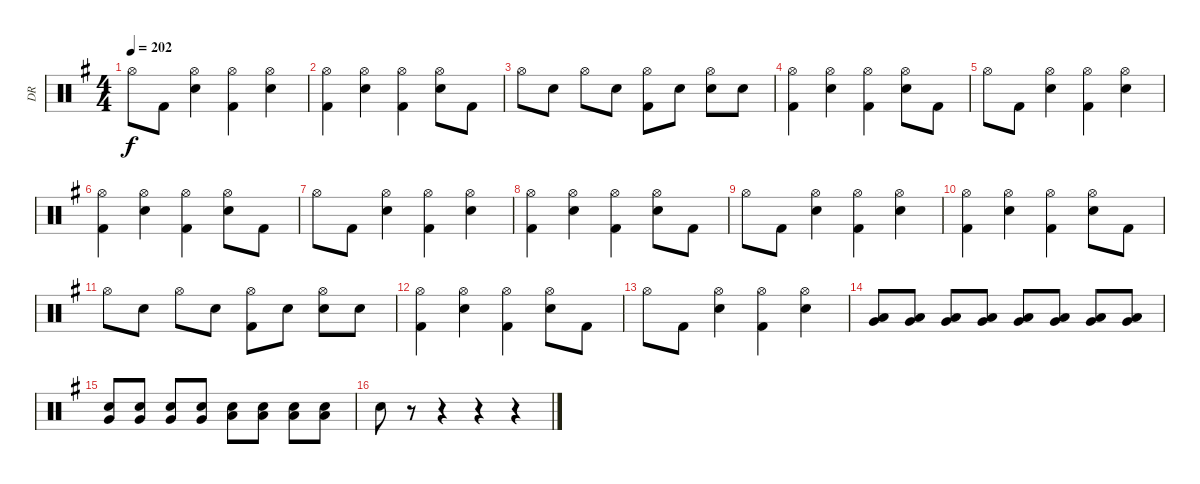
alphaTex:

\track ("DR" "DR") {instrument percussion}
\staff {score}
\articulation defaults
\ts (4 4)
\tempo 202
\clef neutral
\ks g "Hi-Hat (open)".8{dy f} "Kick (hit) 2".8
("Hi-Hat (open)" "Electric Snare (hit)").4 ("Hi-Hat (open)" "Kick (hit) 2").4 ("Hi-Hat (open)" "Electric Snare (hit)").4 |
("Hi-Hat (open)" "Kick (hit) 2").4 ("Hi-Hat (open)" "Electric Snare (hit)").4 ("Hi-Hat (open)" "Kick (hit) 2").4 ("Hi-Hat (open)" "Electric Snare (hit)").8 "Kick (hit) 2".8 |
"Hi-Hat (open)".8 "Electric Snare (hit)".8 "Hi-Hat (open)".8 "Electric Snare (hit)".8 ("Hi-Hat (open)" "Kick (hit) 2").8 "Electric Snare (hit)".8 ("Hi-Hat (open)" "Electric Snare (hit)").8 "Electric Snare (hit)".8 |
("Hi-Hat (open)" "Kick (hit) 2").4 ("Hi-Hat (open)" "Electric Snare (hit)").4 ("Hi-Hat (open)" "Kick (hit) 2").4 ("Hi-Hat (open)" "Electric Snare (hit)").8 "Kick (hit) 2".8 |
"Hi-Hat (open)".8 "Kick (hit) 2".8 ("Hi-Hat (open)" "Electric Snare (hit)").4 ("Hi-Hat (open)" "Kick (hit) 2").4 ("Hi-Hat (open)" "Electric Snare (hit)").4 |
("Hi-Hat (open)" "Kick (hit) 2").4 ("Hi-Hat (open)" "Electric Snare (hit)").4 ("Hi-Hat (open)" "Kick (hit) 2").4 ("Hi-Hat (open)" "Electric Snare (hit)").8 "Kick (hit) 2".8 |
"Hi-Hat (open)".8 "Kick (hit) 2".8 ("Hi-Hat (open)" "Electric Snare (hit)").4 ("Hi-Hat (open)" "Kick (hit) 2").4 ("Hi-Hat (open)" "Electric Snare (hit)").4 |
("Hi-Hat (open)" "Kick (hit) 2").4 ("Hi-Hat (open)" "Electric Snare (hit)").4 ("Hi-Hat (open)" "Kick (hit) 2").4 ("Hi-Hat (open)" "Electric Snare (hit)").8 "Kick (hit) 2".8 |
"Hi-Hat (open)".8 "Kick (hit) 2".8 ("Hi-Hat (open)" "Electric Snare (hit)").4 ("Hi-Hat (open)" "Kick (hit) 2").4 ("Hi-Hat (open)" "Electric Snare (hit)").4 |
("Hi-Hat (open)" "Kick (hit) 2").4 ("Hi-Hat (open)" "Electric Snare (hit)").4 ("Hi-Hat (open)" "Kick (hit) 2").4 ("Hi-Hat (open)" "Electric Snare (hit)").8 "Kick (hit) 2".8 |
"Hi-Hat (open)".8 "Electric Snare (hit)".8 "Hi-Hat (open)".8 "Electric Snare (hit)".8 ("Hi-Hat (open)" "Kick (hit) 2").8 "Electric Snare (hit)".8 ("Hi-Hat (open)" "Electric Snare (hit)").8 "Electric Snare (hit)".8 |
("Hi-Hat (open)" "Kick (hit) 2").4 ("Hi-Hat (open)" "Electric Snare (hit)").4 ("Hi-Hat (open)" "Kick (hit) 2").4 ("Hi-Hat (open)" "Electric Snare (hit)").8 "Kick (hit) 2".8 |
"Hi-Hat (open)".8 "Kick (hit) 2".8 ("Hi-Hat (open)" "Electric Snare (hit)").4 ("Hi-Hat (open)" "Kick (hit) 2").4 ("Hi-Hat (open)" "Electric Snare (hit)").4 |
("Very Low Tom (hit)" "Low Tom (hit)").8 ("Very Low Tom (hit)" "Low Tom (hit)").8 ("Very Low Tom (hit)" "Low Tom (hit)").8 ("Very Low Tom (hit)" "Low Tom (hit)").8 ("Very Low Tom (hit)" "Low Floor Tom (hit)").8 ("Very Low Tom (hit)" "Low Floor Tom (hit)").8 ("Very Low Tom (hit)" "Low Floor Tom (hit)").8 ("Very Low Tom (hit)" "Low Floor Tom (hit)").8 |
("Very Low Tom (hit)" "Electric Snare (hit)").8 ("Very Low Tom (hit)" "Electric Snare (hit)").8 ("Very Low Tom (hit)" "Electric Snare (hit)").8 ("Very Low Tom (hit)" "Electric Snare (hit)").8 ("Low Floor Tom (hit)" "Electric Snare (hit)").8 ("Low Floor Tom (hit)" "Electric Snare (hit)").8 ("Low Floor Tom (hit)" "Electric Snare (hit)").8 ("Low Floor Tom (hit)" "Electric Snare (hit)").8 |
"Electric Snare (hit)".8 r.8 r.4 r.4 r.4
